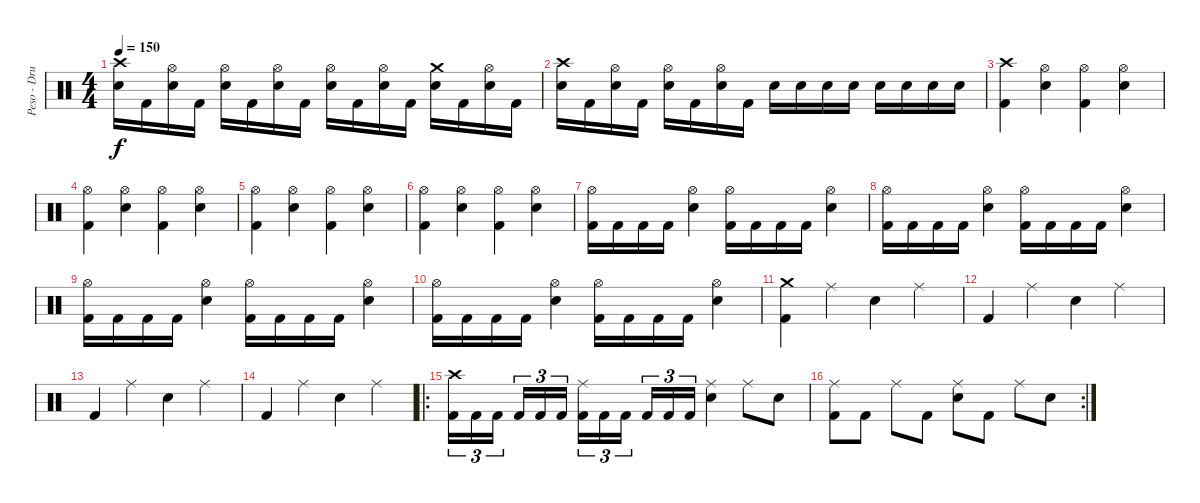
\track ("Peso - Drums" "Peso - Dru") {instrument percussion}
\staff {score}
\articulation defaults
\ts (4 4)
\tempo 150
\clef neutral
\ks c
("Crash high (hit)" "Electric Snare (hit)").16{dy f} "Kick (hit) 2".16 ("Hi-Hat (open)" "Electric Snare (hit)").16 "Kick (hit) 2".16 ("Hi-Hat (open)" "Electric Snare (hit)").16 "Kick (hit) 2".16 ("Hi-Hat (open)" "Electric Snare (hit)").16 "Kick (hit) 2".16 ("Hi-Hat (open)" "Electric Snare (hit)").16 "Kick (hit) 2".16 ("Hi-Hat (open)" "Electric Snare (hit)").16 "Kick (hit) 2".16 ("Crash medium (hit)" "Electric Snare (hit)").16 "Kick (hit) 2".16 ("Hi-Hat (open)" "Electric Snare (hit)").16 "Kick (hit) 2".16 |
("Crash high (hit)" "Electric Snare (hit)").16 "Kick (hit) 2".16 ("Hi-Hat (open)" "Electric Snare (hit)").16 "Kick (hit) 2".16 ("Hi-Hat (open)" "Electric Snare (hit)").16 "Kick (hit) 2".16 ("Hi-Hat (open)" "Electric Snare (hit)").16 "Kick (hit) 2".16 "Electric Snare (hit)".16 "Electric Snare (hit)".16 "Electric Snare (hit)".16 "Electric Snare (hit)".16 "Electric Snare (hit)".16 "Electric Snare (hit)".16 "Electric Snare (hit)".16 "Electric Snare (hit)".16 |
("Crash high (hit)" "Kick (hit) 2").4 ("Hi-Hat (open)" "Electric Snare (hit)").4 ("Hi-Hat (open)" "Kick (hit) 2").4 ("Hi-Hat (open)" "Electric Snare (hit)").4 |
("Hi-Hat (open)" "Kick (hit) 2").4 ("Hi-Hat (open)" "Electric Snare (hit)").4 ("Hi-Hat (open)" "Kick (hit) 2").4 ("Hi-Hat (open)" "Electric Snare (hit)").4 |
("Hi-Hat (open)" "Kick (hit) 2").4 ("Hi-Hat (open)" "Electric Snare (hit)").4 ("Hi-Hat (open)" "Kick (hit) 2").4 ("Hi-Hat (open)" "Electric Snare (hit)").4 |
("Hi-Hat (open)" "Kick (hit) 2").4 ("Hi-Hat (open)" "Electric Snare (hit)").4 ("Hi-Hat (open)" "Kick (hit) 2").4 ("Hi-Hat (open)" "Electric Snare (hit)").4 |
("Hi-Hat (open)" "Kick (hit) 2").16 "Kick (hit) 2".16 "Kick (hit) 2".16 "Kick (hit) 2".16 ("Hi-Hat (open)" "Electric Snare (hit)").4 ("Hi-Hat (open)" "Kick (hit) 2").16 "Kick (hit) 2".16 "Kick (hit) 2".16 "Kick (hit) 2".16 ("Hi-Hat (open)" "Electric Snare (hit)").4 |
("Hi-Hat (open)" "Kick (hit) 2").16 "Kick (hit) 2".16 "Kick (hit) 2".16 "Kick (hit) 2".16 ("Hi-Hat (open)" "Electric Snare (hit)").4 ("Hi-Hat (open)" "Kick (hit) 2").16 "Kick (hit) 2".16 "Kick (hit) 2".16 "Kick (hit) 2".16 ("Hi-Hat (open)" "Electric Snare (hit)").4 |
("Hi-Hat (open)" "Kick (hit) 2").16 "Kick (hit) 2".16 "Kick (hit) 2".16 "Kick (hit) 2".16 ("Hi-Hat (open)" "Electric Snare (hit)").4 ("Hi-Hat (open)" "Kick (hit) 2").16 "Kick (hit) 2".16 "Kick (hit) 2".16 "Kick (hit) 2".16 ("Hi-Hat (open)" "Electric Snare (hit)").4 |
("Hi-Hat (open)" "Kick (hit) 2").16 "Kick (hit) 2".16 "Kick (hit) 2".16 "Kick (hit) 2".16 ("Hi-Hat (open)" "Electric Snare (hit)").4 ("Hi-Hat (open)" "Kick (hit) 2").16 "Kick (hit) 2".16 "Kick (hit) 2".16 "Kick (hit) 2".16 ("Hi-Hat (open)" "Electric Snare (hit)").4 |
("Crash medium (hit)" "Kick (hit) 2").4 "Ride (middle)".4 "Electric Snare (hit)".4 "Ride (middle)".4 |
"Kick (hit) 2".4 "Ride (middle)".4 "Electric Snare (hit)".4 "Ride (middle)".4 |
"Kick (hit) 2".4 "Ride (middle)".4 "Electric Snare (hit)".4 "Ride (middle)".4 |
"Kick (hit) 2".4 "Ride (middle)".4 "Electric Snare (hit)".4 "Ride (middle)".4 |
\ro
("Crash high (hit)" "Kick (hit) 2").16{tu (3 2)} "Kick (hit) 2".16{tu (3 2)} "Kick (hit) 2".16{tu (3 2) beam splitsecondary} "Kick (hit) 2".16{tu (3 2)} "Kick (hit) 2".16{tu (3 2)} "Kick (hit) 2".16{tu (3 2)} ("Ride (middle)" "Kick (hit) 2").16{tu (3 2)} "Kick (hit) 2".16{tu (3 2)} "Kick (hit) 2".16{tu (3 2) beam splitsecondary} "Kick (hit) 2".16{tu (3 2)} "Kick (hit) 2".16{tu (3 2)} "Kick (hit) 2".16{tu (3 2)} ("Ride (middle)" "Electric Snare (hit)").4 "Ride (middle)".8 "Electric Snare (hit)".8 |
\rc 2
("Ride (middle)" "Kick (hit) 2").8 "Kick (hit) 2".8 "Ride (middle)".8 "Kick (hit) 2".8 ("Ride (middle)" "Electric Snare (hit)").8 "Kick (hit) 2".8 "Ride (middle)".8 "Electric Snare (hit)".8
